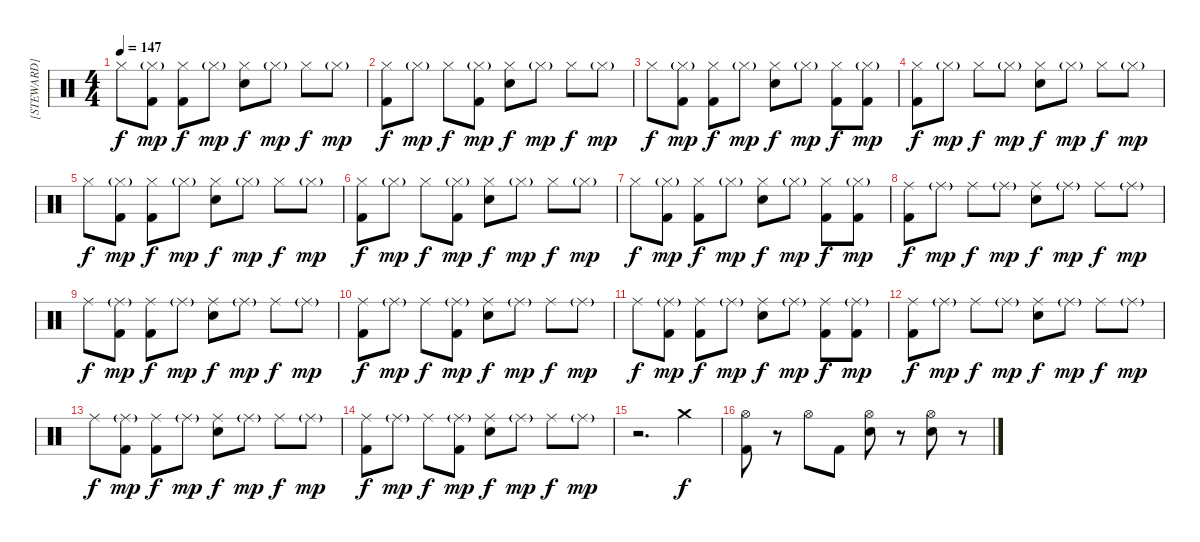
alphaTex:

\track ("[STEWARD]" "[STEWARD]") {instrument percussion}
\staff {score}
\articulation defaults
\ts (4 4)
\tempo 147
\clef neutral
\ks c "Hi-Hat (closed)".8{dy f}
("Hi-Hat (closed)"{g} "Kick (hit) 2").8{dy mp} ("Hi-Hat (closed)" "Kick (hit) 2").8{dy f} "Hi-Hat (closed)"{g}.8{dy mp} ("Hi-Hat (closed)" "Snare (hit) 2").8{dy f} "Hi-Hat (closed)"{g}.8{dy mp} "Hi-Hat (closed)".8{dy f} "Hi-Hat (closed)"{g}.8{dy mp} |
("Hi-Hat (closed)" "Kick (hit) 2").8{dy f} "Hi-Hat (closed)"{g}.8{dy mp} "Hi-Hat (closed)".8{dy f} ("Hi-Hat (closed)"{g} "Kick (hit) 2").8{dy mp} ("Hi-Hat (closed)" "Snare (hit) 2").8{dy f} "Hi-Hat (closed)"{g}.8{dy mp} "Hi-Hat (closed)".8{dy f} "Hi-Hat (closed)"{g}.8{dy mp} |
"Hi-Hat (closed)".8{dy f} ("Hi-Hat (closed)"{g} "Kick (hit) 2").8{dy mp} ("Hi-Hat (closed)" "Kick (hit) 2").8{dy f} "Hi-Hat (closed)"{g}.8{dy mp} ("Hi-Hat (closed)" "Snare (hit) 2").8{dy f} "Hi-Hat (closed)"{g}.8{dy mp} ("Hi-Hat (closed)" "Kick (hit) 2").8{dy f} ("Hi-Hat (closed)"{g} "Kick (hit) 2").8{dy mp} |
("Hi-Hat (closed)" "Kick (hit) 2").8{dy f} "Hi-Hat (closed)"{g}.8{dy mp} "Hi-Hat (closed)".8{dy f} "Hi-Hat (closed)"{g}.8{dy mp} ("Hi-Hat (closed)" "Snare (hit) 2").8{dy f} "Hi-Hat (closed)"{g}.8{dy mp} "Hi-Hat (closed)".8{dy f} "Hi-Hat (closed)"{g}.8{dy mp} |
"Hi-Hat (closed)".8{dy f} ("Hi-Hat (closed)"{g} "Kick (hit) 2").8{dy mp} ("Hi-Hat (closed)" "Kick (hit) 2").8{dy f} "Hi-Hat (closed)"{g}.8{dy mp} ("Hi-Hat (closed)" "Snare (hit) 2").8{dy f} "Hi-Hat (closed)"{g}.8{dy mp} "Hi-Hat (closed)".8{dy f} "Hi-Hat (closed)"{g}.8{dy mp} |
("Hi-Hat (closed)" "Kick (hit) 2").8{dy f} "Hi-Hat (closed)"{g}.8{dy mp} "Hi-Hat (closed)".8{dy f} ("Hi-Hat (closed)"{g} "Kick (hit) 2").8{dy mp} ("Hi-Hat (closed)" "Snare (hit) 2").8{dy f} "Hi-Hat (closed)"{g}.8{dy mp} "Hi-Hat (closed)".8{dy f} "Hi-Hat (closed)"{g}.8{dy mp} |
"Hi-Hat (closed)".8{dy f} ("Hi-Hat (closed)"{g} "Kick (hit) 2").8{dy mp} ("Hi-Hat (closed)" "Kick (hit) 2").8{dy f} "Hi-Hat (closed)"{g}.8{dy mp} ("Hi-Hat (closed)" "Snare (hit) 2").8{dy f} "Hi-Hat (closed)"{g}.8{dy mp} ("Hi-Hat (closed)" "Kick (hit) 2").8{dy f} ("Hi-Hat (closed)"{g} "Kick (hit) 2").8{dy mp} |
("Ride (middle)" "Kick (hit) 2").8{dy f} "Ride (middle)"{g}.8{dy mp} "Ride (middle)".8{dy f} "Ride (middle)"{g}.8{dy mp} ("Ride (middle)" "Snare (hit) 2").8{dy f} "Ride (middle)"{g}.8{dy mp} "Ride (middle)".8{dy f} "Ride (middle)"{g}.8{dy mp} |
"Ride (middle)".8{dy f} ("Ride (middle)"{g} "Kick (hit) 2").8{dy mp} ("Ride (middle)" "Kick (hit) 2").8{dy f} "Ride (middle)"{g}.8{dy mp} ("Ride (middle)" "Snare (hit) 2").8{dy f} "Ride (middle)"{g}.8{dy mp} "Ride (middle)".8{dy f} "Ride (middle)"{g}.8{dy mp} |
("Ride (middle)" "Kick (hit) 2").8{dy f} "Ride (middle)"{g}.8{dy mp} "Ride (middle)".8{dy f} ("Ride (middle)"{g} "Kick (hit) 2").8{dy mp} ("Ride (middle)" "Snare (hit) 2").8{dy f} "Ride (middle)"{g}.8{dy mp} "Ride (middle)".8{dy f} "Ride (middle)"{g}.8{dy mp} |
"Ride (middle)".8{dy f} ("Ride (middle)"{g} "Kick (hit) 2").8{dy mp} ("Ride (middle)" "Kick (hit) 2").8{dy f} "Ride (middle)"{g}.8{dy mp} ("Ride (middle)" "Snare (hit) 2").8{dy f} "Ride (middle)"{g}.8{dy mp} ("Ride (middle)" "Kick (hit) 2").8{dy f} ("Ride (middle)"{g} "Kick (hit) 2").8{dy mp} |
("Ride (middle)" "Kick (hit) 2").8{dy f} "Ride (middle)"{g}.8{dy mp} "Ride (middle)".8{dy f} "Ride (middle)"{g}.8{dy mp} ("Ride (middle)" "Snare (hit) 2").8{dy f} "Ride (middle)"{g}.8{dy mp} "Ride (middle)".8{dy f} "Ride (middle)"{g}.8{dy mp} |
"Ride (middle)".8{dy f} ("Ride (middle)"{g} "Kick (hit) 2").8{dy mp} ("Ride (middle)" "Kick (hit) 2").8{dy f} "Ride (middle)"{g}.8{dy mp} ("Ride (middle)" "Snare (hit) 2").8{dy f} "Ride (middle)"{g}.8{dy mp} "Ride (middle)".8{dy f} "Ride (middle)"{g}.8{dy mp} |
("Ride (middle)" "Kick (hit) 2").8{dy f} "Ride (middle)"{g}.8{dy mp} "Ride (middle)".8{dy f} ("Ride (middle)"{g} "Kick (hit) 2").8{dy mp} ("Ride (middle)" "Snare (hit) 2").8{dy f} "Ride (middle)"{g}.8{dy mp} "Ride (middle)".8{dy f} "Ride (middle)"{g}.8{dy mp} |
r.2{d} "Crash medium (hit)".4{dy f} |
("Hi-Hat (open)" "Kick (hit) 2").8 r.8 "Hi-Hat (open)".8 "Kick (hit) 2".8 ("Hi-Hat (open)" "Snare (hit) 2").8 r.8 ("Hi-Hat (open)" "Snare (hit) 2").8 r.8
